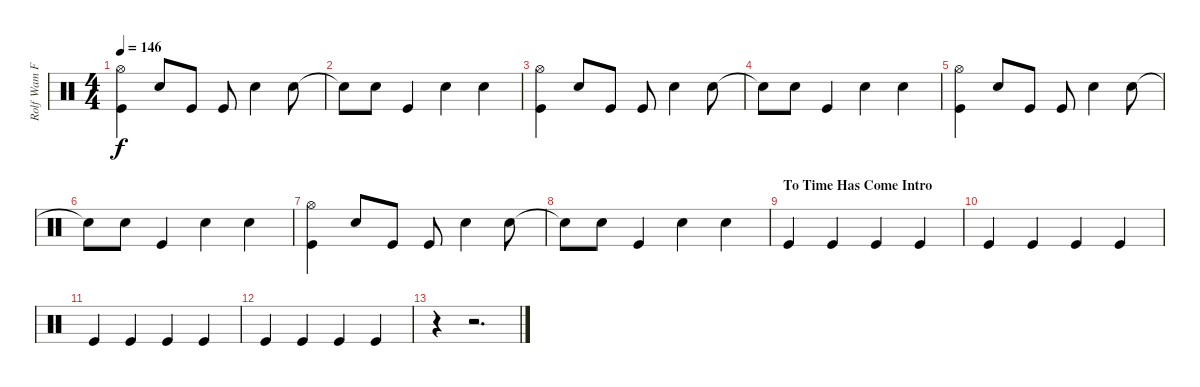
\track ("Rolf Wam Fjell" "Rolf Wam F") {instrument percussion}
\staff {score}
\articulation defaults
\ts (4 4)
\tempo 146
\clef neutral
\ks c
("Kick (hit)" "Hi-Hat (open)").4{dy f} "Electric Snare (hit)".8 "Kick (hit)".8 "Kick (hit)".8 "Electric Snare (hit)".4 "Electric Snare (hit)".8 |
"Electric Snare (hit)"{t}.8 "Electric Snare (hit)".8 "Kick (hit)".4 "Electric Snare (hit)".4 "Electric Snare (hit)".4 |
("Kick (hit)" "Hi-Hat (open)").4 "Electric Snare (hit)".8 "Kick (hit)".8 "Kick (hit)".8 "Electric Snare (hit)".4 "Electric Snare (hit)".8 |
"Electric Snare (hit)"{t}.8 "Electric Snare (hit)".8 "Kick (hit)".4 "Electric Snare (hit)".4 "Electric Snare (hit)".4 |
("Kick (hit)" "Hi-Hat (open)").4 "Electric Snare (hit)".8 "Kick (hit)".8 "Kick (hit)".8 "Electric Snare (hit)".4 "Electric Snare (hit)".8 |
"Electric Snare (hit)"{t}.8 "Electric Snare (hit)".8 "Kick (hit)".4 "Electric Snare (hit)".4 "Electric Snare (hit)".4 |
("Kick (hit)" "Hi-Hat (open)").4 "Electric Snare (hit)".8 "Kick (hit)".8 "Kick (hit)".8 "Electric Snare (hit)".4 "Electric Snare (hit)".8 |
"Electric Snare (hit)"{t}.8 "Electric Snare (hit)".8 "Kick (hit)".4 "Electric Snare (hit)".4 "Electric Snare (hit)".4 |
\section ("" "To Time Has Come Intro")
"Kick (hit)".4 "Kick (hit)".4 "Kick (hit)".4 "Kick (hit)".4 |
"Kick (hit)".4 "Kick (hit)".4 "Kick (hit)".4 "Kick (hit)".4 |
"Kick (hit)".4 "Kick (hit)".4 "Kick (hit)".4 "Kick (hit)".4 |
"Kick (hit)".4 "Kick (hit)".4 "Kick (hit)".4 "Kick (hit)".4 |
r.4 r.2{d}
